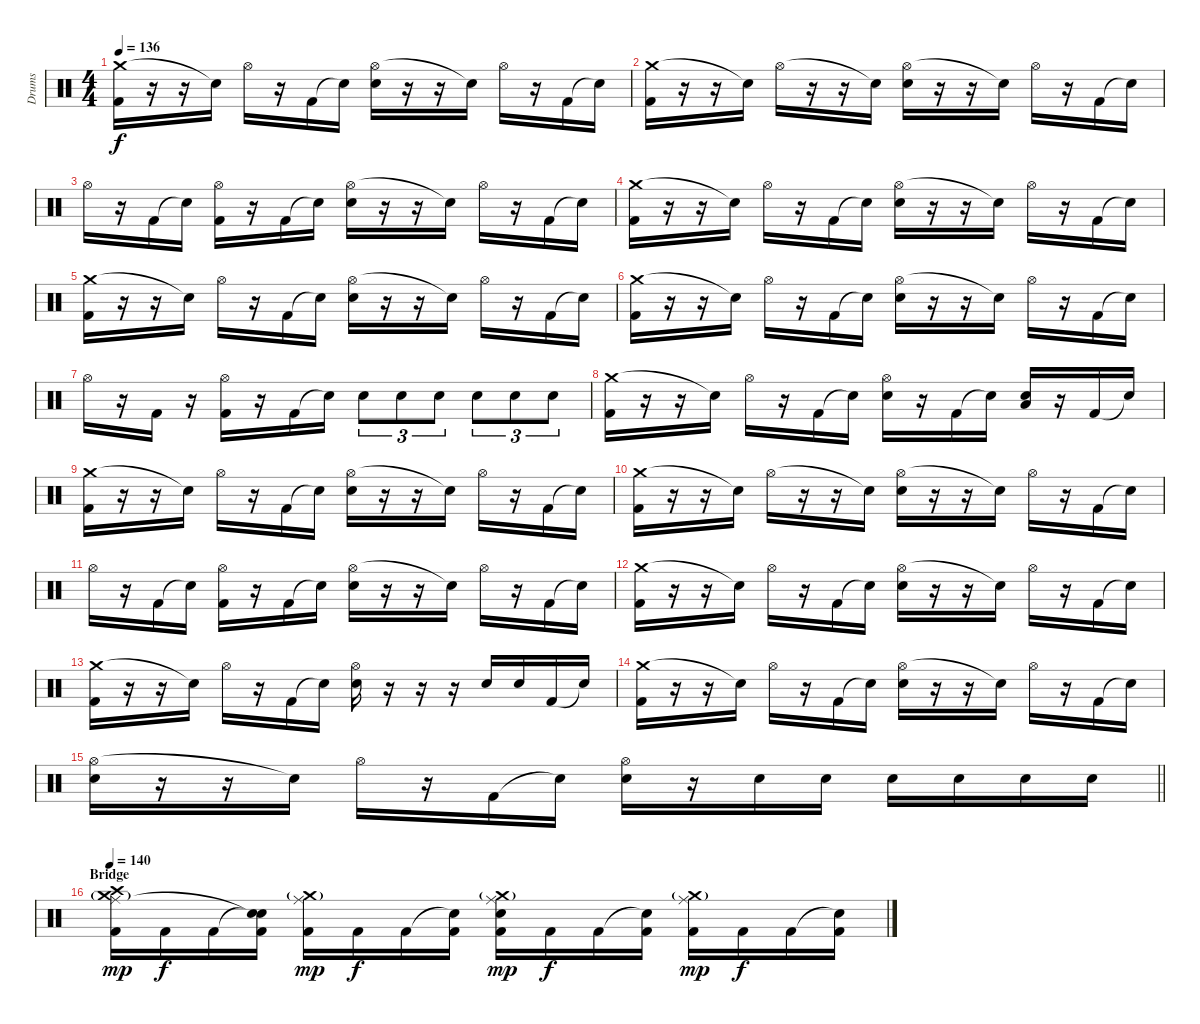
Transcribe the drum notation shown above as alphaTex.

\track ("Drums" "Drums") {instrument percussion}
\staff {score}
\articulation defaults
\ts (4 4)
\tempo 136
\clef neutral
\ks c
("Crash medium (hit)" "Kick (hit) 2").16{dy f} r.16 r.16 "Snare (hit)"{t}.16 "Hi-Hat (open)".16 r.16 "Kick (hit) 2".16 "Snare (hit)"{t}.16 ("Hi-Hat (open)" "Electric Snare (hit)").16 r.16 r.16 "Snare (hit)"{t}.16 "Hi-Hat (open)".16 r.16 "Kick (hit) 2".16 "Snare (hit)"{t}.16 |
("Crash medium (hit)" "Kick (hit) 2").16 r.16 r.16 "Snare (hit)"{t}.16 "Hi-Hat (open)".16 r.16 r.16 "Snare (hit)"{t}.16 ("Hi-Hat (open)" "Electric Snare (hit)").16 r.16 r.16 "Snare (hit)"{t}.16 "Hi-Hat (open)".16 r.16 "Kick (hit) 2".16 "Snare (hit)"{t}.16 |
"Hi-Hat (open)".16 r.16 "Kick (hit) 2".16 "Snare (hit)"{t}.16 ("Hi-Hat (open)" "Kick (hit) 2").16 r.16 "Kick (hit) 2".16 "Snare (hit)"{t}.16 ("Hi-Hat (open)" "Electric Snare (hit)").16 r.16 r.16 "Snare (hit)"{t}.16 "Hi-Hat (open)".16 r.16 "Kick (hit) 2".16 "Snare (hit)"{t}.16 |
("Crash medium (hit)" "Kick (hit) 2").16 r.16 r.16 "Snare (hit)"{t}.16 "Hi-Hat (open)".16 r.16 "Kick (hit) 2".16 "Snare (hit)"{t}.16 ("Hi-Hat (open)" "Electric Snare (hit)").16 r.16 r.16 "Snare (hit)"{t}.16 "Hi-Hat (open)".16 r.16 "Kick (hit) 2".16 "Snare (hit)"{t}.16 |
("Crash medium (hit)" "Kick (hit) 2").16 r.16 r.16 "Snare (hit)"{t}.16 "Hi-Hat (open)".16 r.16 "Kick (hit) 2".16 "Snare (hit)"{t}.16 ("Hi-Hat (open)" "Electric Snare (hit)").16 r.16 r.16 "Snare (hit)"{t}.16 "Hi-Hat (open)".16 r.16 "Kick (hit) 2".16 "Snare (hit)"{t}.16 |
("Crash medium (hit)" "Kick (hit) 2").16 r.16 r.16 "Snare (hit)"{t}.16 "Hi-Hat (open)".16 r.16 "Kick (hit) 2".16 "Snare (hit)"{t}.16 ("Hi-Hat (open)" "Electric Snare (hit)").16 r.16 r.16 "Snare (hit)"{t}.16 "Hi-Hat (open)".16 r.16 "Kick (hit) 2".16 "Snare (hit)"{t}.16 |
"Hi-Hat (open)".16 r.16 "Kick (hit) 2".16 r.16 ("Hi-Hat (open)" "Kick (hit) 2").16 r.16 "Kick (hit) 2".16 "Snare (hit)"{t}.16 "Electric Snare (hit)".8{tu (3 2)} "Electric Snare (hit)".8{tu (3 2)} "Electric Snare (hit)".8{tu (3 2)} "Electric Snare (hit)".8{tu (3 2)} "Electric Snare (hit)".8{tu (3 2)} "Electric Snare (hit)".8{tu (3 2)} |
("Crash medium (hit)" "Kick (hit) 2").16 r.16 r.16 "Snare (hit)"{t}.16 "Hi-Hat (open)".16 r.16 "Kick (hit) 2".16 "Snare (hit)"{t}.16 ("Hi-Hat (open)" "Electric Snare (hit)").16 r.16 "Kick (hit) 2".16 "Snare (hit)"{t}.16 ("Low Floor Tom (hit)" "Electric Snare (hit)").16 r.16 "Kick (hit) 2".16 "Snare (hit)"{t}.16 |
("Crash medium (hit)" "Kick (hit) 2").16 r.16 r.16 "Snare (hit)"{t}.16 "Hi-Hat (open)".16 r.16 "Kick (hit) 2".16 "Snare (hit)"{t}.16 ("Hi-Hat (open)" "Electric Snare (hit)").16 r.16 r.16 "Snare (hit)"{t}.16 "Hi-Hat (open)".16 r.16 "Kick (hit) 2".16 "Snare (hit)"{t}.16 |
("Crash medium (hit)" "Kick (hit) 2").16 r.16 r.16 "Snare (hit)"{t}.16 "Hi-Hat (open)".16 r.16 r.16 "Snare (hit)"{t}.16 ("Hi-Hat (open)" "Electric Snare (hit)").16 r.16 r.16 "Snare (hit)"{t}.16 "Hi-Hat (open)".16 r.16 "Kick (hit) 2".16 "Snare (hit)"{t}.16 |
"Hi-Hat (open)".16 r.16 "Kick (hit) 2".16 "Snare (hit)"{t}.16 ("Hi-Hat (open)" "Kick (hit) 2").16 r.16 "Kick (hit) 2".16 "Snare (hit)"{t}.16 ("Hi-Hat (open)" "Electric Snare (hit)").16 r.16 r.16 "Snare (hit)"{t}.16 "Hi-Hat (open)".16 r.16 "Kick (hit) 2".16 "Snare (hit)"{t}.16 |
("Crash medium (hit)" "Kick (hit) 2").16 r.16 r.16 "Snare (hit)"{t}.16 "Hi-Hat (open)".16 r.16 "Kick (hit) 2".16 "Snare (hit)"{t}.16 ("Hi-Hat (open)" "Electric Snare (hit)").16 r.16 r.16 "Snare (hit)"{t}.16 "Hi-Hat (open)".16 r.16 "Kick (hit) 2".16 "Snare (hit)"{t}.16 |
("Crash medium (hit)" "Kick (hit) 2").16 r.16 r.16 "Snare (hit)"{t}.16 "Hi-Hat (open)".16 r.16 "Kick (hit) 2".16 "Snare (hit)"{t}.16 ("Hi-Hat (open)" "Electric Snare (hit)").16 r.16 r.16 r.16 "Electric Snare (hit)".16 "Electric Snare (hit)".16 "Kick (hit) 2".16 "Snare (hit)"{t}.16 |
("Crash medium (hit)" "Kick (hit) 2").16 r.16 r.16 "Snare (hit)"{t}.16 "Hi-Hat (open)".16 r.16 "Kick (hit) 2".16 "Snare (hit)"{t}.16 ("Hi-Hat (open)" "Electric Snare (hit)").16 r.16 r.16 "Snare (hit)"{t}.16 "Hi-Hat (open)".16 r.16 "Kick (hit) 2".16 "Snare (hit)"{t}.16 |
\barLineRight lightlight
("Hi-Hat (open)" "Electric Snare (hit)").16 r.16 r.16 "Snare (hit)"{t}.16 "Hi-Hat (open)".16 r.16 "Kick (hit) 2".16 "Snare (hit)"{t}.16 ("Hi-Hat (open)" "Electric Snare (hit)").16 r.16 "Electric Snare (hit)".16 "Electric Snare (hit)".16 "Electric Snare (hit)".16 "Electric Snare (hit)".16 "Electric Snare (hit)".16 "Electric Snare (hit)".16 |
\section ("" "Bridge")
\tempo 140
("Crash medium (hit)"{g} "Ride (middle)" "Crash high (hit)" "Kick (hit) 2").16{dy mp} "Kick (hit) 2".16{dy f} "Kick (hit) 2".16 ("Snare (hit)"{t} "Snare (hit)"{t} "Kick (hit) 2").16 ("Crash medium (hit)"{g} "Ride (middle)" "Kick (hit) 2").16{dy mp} "Kick (hit) 2".16{dy f} "Kick (hit) 2".16 ("Snare (hit)"{t} "Kick (hit) 2").16 ("Crash medium (hit)"{g} "Ride (middle)" "Electric Snare (hit)" "Kick (hit) 2").16{dy mp} "Kick (hit) 2".16{dy f} "Kick (hit) 2".16 ("Snare (hit)"{t} "Kick (hit) 2").16 ("Crash medium (hit)"{g} "Ride (middle)" "Kick (hit) 2").16{dy mp} "Kick (hit) 2".16{dy f} "Kick (hit) 2".16 ("Snare (hit)"{t} "Kick (hit) 2").16
